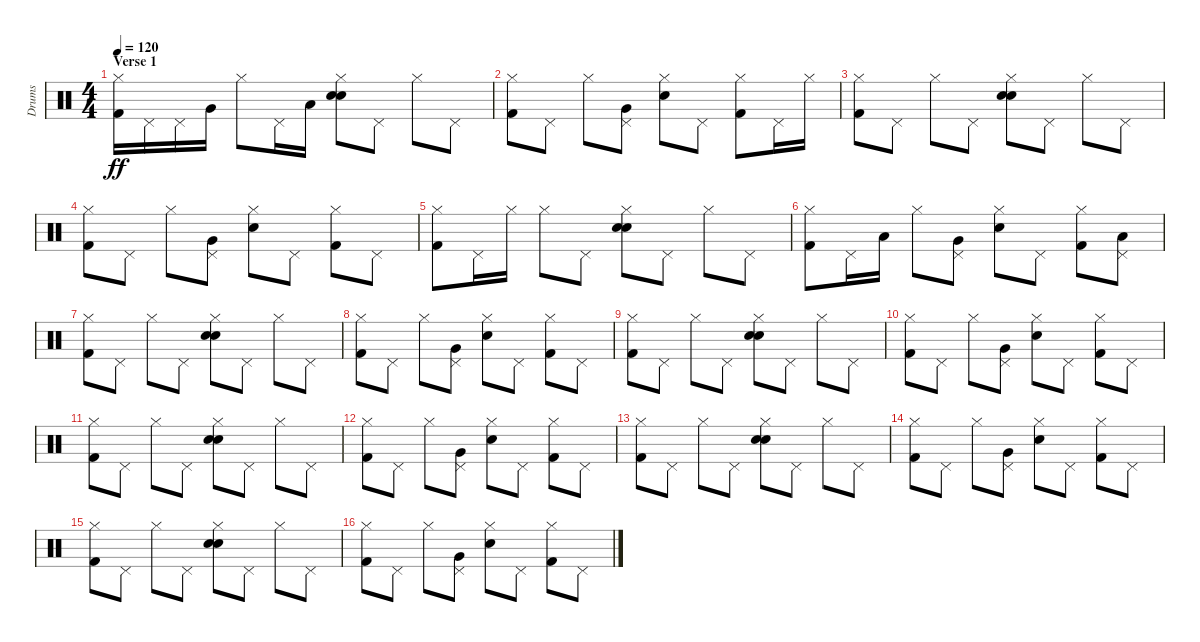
\track ("Drums" "Drums") {instrument percussion}
\staff {score}
\articulation defaults
\ts (4 4)
\section ("" "Verse 1")
\tempo 120
\clef neutral
\ks c
("Kick (hit) 2" "Hi-Hat (closed)").16{dy ff} "Pedal Hi-Hat (hit)".16 "Pedal Hi-Hat (hit)".16 "Very Low Tom (hit)".16 "Hi-Hat (closed)".8 "Pedal Hi-Hat (hit)".16 "Low Floor Tom (hit)".16 ("Electric Snare (hit)" "Electric Snare (hit)" "Hi-Hat (closed)").8 "Pedal Hi-Hat (hit)".8 "Hi-Hat (closed)".8 "Pedal Hi-Hat (hit)".8 |
("Kick (hit) 2" "Hi-Hat (closed)").8 "Pedal Hi-Hat (hit)".8 "Hi-Hat (closed)".8 ("Very Low Tom (hit)" "Pedal Hi-Hat (hit)").8 ("Electric Snare (hit)" "Hi-Hat (closed)").8 "Pedal Hi-Hat (hit)".8 ("Kick (hit) 2" "Hi-Hat (closed)").8 "Pedal Hi-Hat (hit)".16 "Hi-Hat (closed)".16 |
("Kick (hit) 2" "Hi-Hat (closed)").8 "Pedal Hi-Hat (hit)".8 "Hi-Hat (closed)".8 "Pedal Hi-Hat (hit)".8 ("Electric Snare (hit)" "Electric Snare (hit)" "Hi-Hat (closed)").8 "Pedal Hi-Hat (hit)".8 "Hi-Hat (closed)".8 "Pedal Hi-Hat (hit)".8 |
("Kick (hit) 2" "Hi-Hat (closed)").8 "Pedal Hi-Hat (hit)".8 "Hi-Hat (closed)".8 ("Very Low Tom (hit)" "Pedal Hi-Hat (hit)").8 ("Electric Snare (hit)" "Hi-Hat (closed)").8 "Pedal Hi-Hat (hit)".8 ("Kick (hit) 2" "Hi-Hat (closed)").8 "Pedal Hi-Hat (hit)".8 |
("Kick (hit) 2" "Hi-Hat (closed)").8 "Pedal Hi-Hat (hit)".16 "Hi-Hat (closed)".16 "Hi-Hat (closed)".8 "Pedal Hi-Hat (hit)".8 ("Electric Snare (hit)" "Electric Snare (hit)" "Hi-Hat (closed)").8 "Pedal Hi-Hat (hit)".8 "Hi-Hat (closed)".8 "Pedal Hi-Hat (hit)".8 |
("Kick (hit) 2" "Hi-Hat (closed)").8 "Pedal Hi-Hat (hit)".16 "Low Floor Tom (hit)".16 "Hi-Hat (closed)".8 ("Very Low Tom (hit)" "Pedal Hi-Hat (hit)").8 ("Electric Snare (hit)" "Hi-Hat (closed)").8 "Pedal Hi-Hat (hit)".8 ("Kick (hit) 2" "Hi-Hat (closed)").8 ("Low Floor Tom (hit)" "Pedal Hi-Hat (hit)").8 |
("Kick (hit) 2" "Hi-Hat (closed)").8 "Pedal Hi-Hat (hit)".8 "Hi-Hat (closed)".8 "Pedal Hi-Hat (hit)".8 ("Electric Snare (hit)" "Electric Snare (hit)" "Hi-Hat (closed)").8 "Pedal Hi-Hat (hit)".8 "Hi-Hat (closed)".8 "Pedal Hi-Hat (hit)".8 |
("Kick (hit) 2" "Hi-Hat (closed)").8 "Pedal Hi-Hat (hit)".8 "Hi-Hat (closed)".8 ("Very Low Tom (hit)" "Pedal Hi-Hat (hit)").8 ("Electric Snare (hit)" "Hi-Hat (closed)").8 "Pedal Hi-Hat (hit)".8 ("Kick (hit) 2" "Hi-Hat (closed)").8 "Pedal Hi-Hat (hit)".8 |
("Kick (hit) 2" "Hi-Hat (closed)").8 "Pedal Hi-Hat (hit)".8 "Hi-Hat (closed)".8 "Pedal Hi-Hat (hit)".8 ("Electric Snare (hit)" "Electric Snare (hit)" "Hi-Hat (closed)").8 "Pedal Hi-Hat (hit)".8 "Hi-Hat (closed)".8 "Pedal Hi-Hat (hit)".8 |
("Kick (hit) 2" "Hi-Hat (closed)").8 "Pedal Hi-Hat (hit)".8 "Hi-Hat (closed)".8 ("Very Low Tom (hit)" "Pedal Hi-Hat (hit)").8 ("Electric Snare (hit)" "Hi-Hat (closed)").8 "Pedal Hi-Hat (hit)".8 ("Kick (hit) 2" "Hi-Hat (closed)").8 "Pedal Hi-Hat (hit)".8 |
("Kick (hit) 2" "Hi-Hat (closed)").8 "Pedal Hi-Hat (hit)".8 "Hi-Hat (closed)".8 "Pedal Hi-Hat (hit)".8 ("Electric Snare (hit)" "Electric Snare (hit)" "Hi-Hat (closed)").8 "Pedal Hi-Hat (hit)".8 "Hi-Hat (closed)".8 "Pedal Hi-Hat (hit)".8 |
("Kick (hit) 2" "Hi-Hat (closed)").8 "Pedal Hi-Hat (hit)".8 "Hi-Hat (closed)".8 ("Very Low Tom (hit)" "Pedal Hi-Hat (hit)").8 ("Electric Snare (hit)" "Hi-Hat (closed)").8 "Pedal Hi-Hat (hit)".8 ("Kick (hit) 2" "Hi-Hat (closed)").8 "Pedal Hi-Hat (hit)".8 |
("Kick (hit) 2" "Hi-Hat (closed)").8 "Pedal Hi-Hat (hit)".8 "Hi-Hat (closed)".8 "Pedal Hi-Hat (hit)".8 ("Electric Snare (hit)" "Electric Snare (hit)" "Hi-Hat (closed)").8 "Pedal Hi-Hat (hit)".8 "Hi-Hat (closed)".8 "Pedal Hi-Hat (hit)".8 |
("Kick (hit) 2" "Hi-Hat (closed)").8 "Pedal Hi-Hat (hit)".8 "Hi-Hat (closed)".8 ("Very Low Tom (hit)" "Pedal Hi-Hat (hit)").8 ("Electric Snare (hit)" "Hi-Hat (closed)").8 "Pedal Hi-Hat (hit)".8 ("Kick (hit) 2" "Hi-Hat (closed)").8 "Pedal Hi-Hat (hit)".8 |
("Kick (hit) 2" "Hi-Hat (closed)").8 "Pedal Hi-Hat (hit)".8 "Hi-Hat (closed)".8 "Pedal Hi-Hat (hit)".8 ("Electric Snare (hit)" "Electric Snare (hit)" "Hi-Hat (closed)").8 "Pedal Hi-Hat (hit)".8 "Hi-Hat (closed)".8 "Pedal Hi-Hat (hit)".8 |
("Kick (hit) 2" "Hi-Hat (closed)").8 "Pedal Hi-Hat (hit)".8 "Hi-Hat (closed)".8 ("Very Low Tom (hit)" "Pedal Hi-Hat (hit)").8 ("Electric Snare (hit)" "Hi-Hat (closed)").8 "Pedal Hi-Hat (hit)".8 ("Kick (hit) 2" "Hi-Hat (closed)").8 "Pedal Hi-Hat (hit)".8
